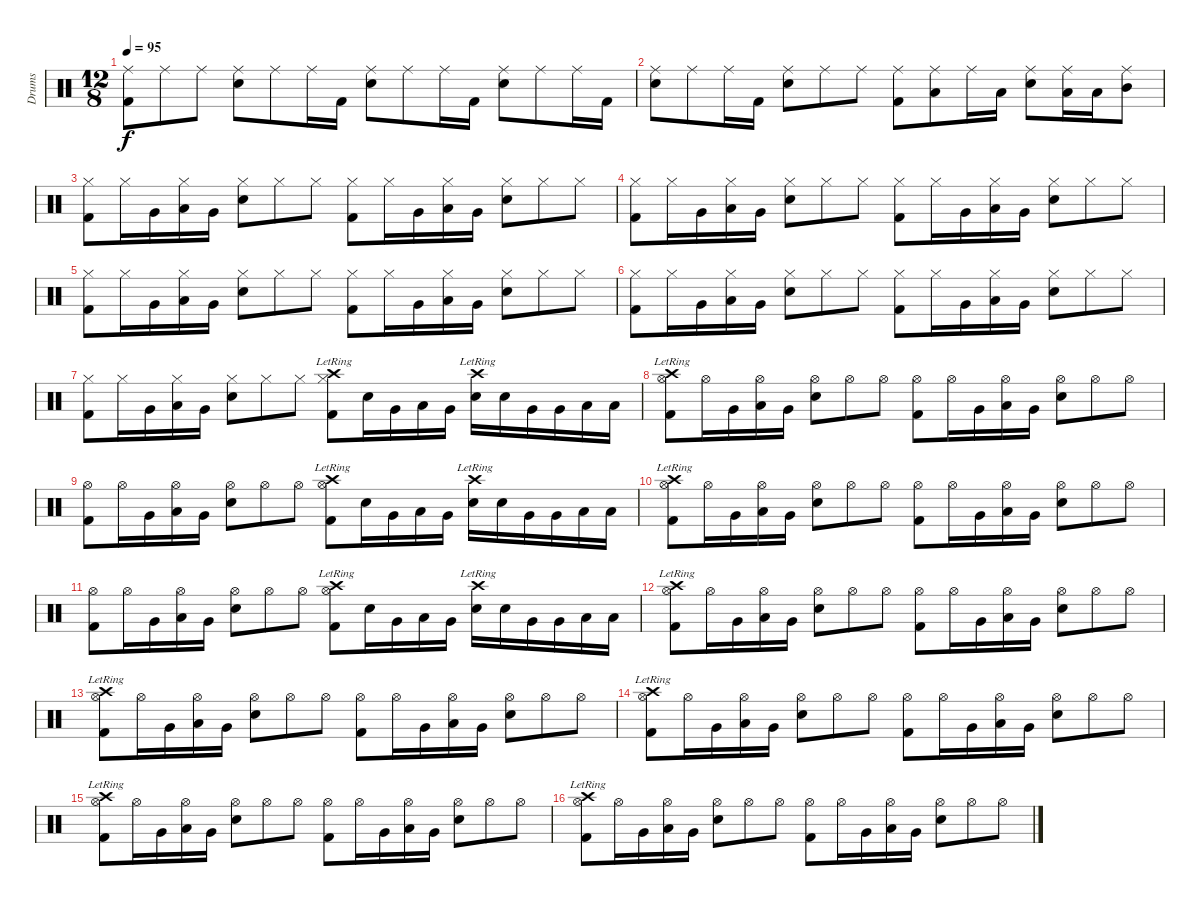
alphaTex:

\track ("Drums" "Drums") {instrument percussion}
\staff {score}
\articulation defaults
\ts (12 8)
\tempo 95
\clef neutral
\ks c
("Kick (hit) 2" "Ride (middle)").8{dy f} "Ride (middle)".8 "Ride (middle)".8 ("Snare (hit) 2" "Ride (middle)").8 "Ride (middle)".8 "Ride (middle)".16 "Kick (hit) 2".16 ("Snare (hit) 2" "Ride (middle)").8 "Ride (middle)".8 "Ride (middle)".16 "Kick (hit) 2".16 ("Snare (hit) 2" "Ride (middle)").8 "Ride (middle)".8 "Ride (middle)".16 "Kick (hit) 2".16 |
("Snare (hit) 2" "Ride (middle)").8 "Ride (middle)".8 "Ride (middle)".16 "Kick (hit) 2".16 ("Snare (hit) 2" "Ride (middle)").8 "Ride (middle)".8 "Ride (middle)".8 ("Kick (hit) 2" "Ride (middle)").8 ("Ride (middle)" "Low Tom (hit)").8 "Ride (middle)".16 "Low Tom (hit)".16 ("Snare (hit) 2" "Ride (middle)").8 ("Ride (middle)" "Low Tom (hit)").16 "Low Tom (hit)".16 ("Ride (middle)" "Mid Tom (hit)").8 |
("Kick (hit) 2" "Hi-Hat (closed)").8 "Hi-Hat (closed)".16 "Very Low Tom (hit)".16 ("Hi-Hat (closed)" "Low Tom (hit)").16 "Very Low Tom (hit)".16 ("Snare (hit) 2" "Hi-Hat (closed)").8 "Hi-Hat (closed)".8 "Hi-Hat (closed)".8 ("Kick (hit) 2" "Hi-Hat (closed)").8 "Hi-Hat (closed)".16 "Very Low Tom (hit)".16 ("Hi-Hat (closed)" "Low Tom (hit)").16 "Very Low Tom (hit)".16 ("Snare (hit) 2" "Hi-Hat (closed)").8 "Hi-Hat (closed)".8 "Hi-Hat (closed)".8 |
("Kick (hit) 2" "Hi-Hat (closed)").8 "Hi-Hat (closed)".16 "Very Low Tom (hit)".16 ("Hi-Hat (closed)" "Low Tom (hit)").16 "Very Low Tom (hit)".16 ("Snare (hit) 2" "Hi-Hat (closed)").8 "Hi-Hat (closed)".8 "Hi-Hat (closed)".8 ("Kick (hit) 2" "Hi-Hat (closed)").8 "Hi-Hat (closed)".16 "Very Low Tom (hit)".16 ("Hi-Hat (closed)" "Low Tom (hit)").16 "Very Low Tom (hit)".16 ("Snare (hit) 2" "Hi-Hat (closed)").8 "Hi-Hat (closed)".8 "Hi-Hat (closed)".8 |
("Kick (hit) 2" "Hi-Hat (closed)").8 "Hi-Hat (closed)".16 "Very Low Tom (hit)".16 ("Hi-Hat (closed)" "Low Tom (hit)").16 "Very Low Tom (hit)".16 ("Snare (hit) 2" "Hi-Hat (closed)").8 "Hi-Hat (closed)".8 "Hi-Hat (closed)".8 ("Kick (hit) 2" "Hi-Hat (closed)").8 "Hi-Hat (closed)".16 "Very Low Tom (hit)".16 ("Hi-Hat (closed)" "Low Tom (hit)").16 "Very Low Tom (hit)".16 ("Snare (hit) 2" "Hi-Hat (closed)").8 "Hi-Hat (closed)".8 "Hi-Hat (closed)".8 |
("Kick (hit) 2" "Hi-Hat (closed)").8 "Hi-Hat (closed)".16 "Very Low Tom (hit)".16 ("Hi-Hat (closed)" "Low Tom (hit)").16 "Very Low Tom (hit)".16 ("Snare (hit) 2" "Hi-Hat (closed)").8 "Hi-Hat (closed)".8 "Hi-Hat (closed)".8 ("Kick (hit) 2" "Hi-Hat (closed)").8 "Hi-Hat (closed)".16 "Very Low Tom (hit)".16 ("Hi-Hat (closed)" "Low Tom (hit)").16 "Very Low Tom (hit)".16 ("Snare (hit) 2" "Hi-Hat (closed)").8 "Hi-Hat (closed)".8 "Hi-Hat (closed)".8 |
("Kick (hit) 2" "Hi-Hat (closed)").8 "Hi-Hat (closed)".16 "Very Low Tom (hit)".16 ("Hi-Hat (closed)" "Low Tom (hit)").16 "Very Low Tom (hit)".16 ("Snare (hit) 2" "Hi-Hat (closed)").8 "Hi-Hat (closed)".8 "Hi-Hat (closed)".8 ("Kick (hit) 2" "Hi-Hat (closed)" "Crash high (hit)"{lr}).8 "Snare (hit) 2".16 "Very Low Tom (hit)".16 "Low Tom (hit)".16 "Very Low Tom (hit)".16 ("Snare (hit) 2" "Crash high (hit)"{lr}).16 "Snare (hit) 2".16 "Very Low Tom (hit)".16 "Very Low Tom (hit)".16 "Low Tom (hit)".16 "Low Tom (hit)".16 |
("Kick (hit) 2" "Hi-Hat (open)" "Crash high (hit)"{lr}).8 "Hi-Hat (open)".16 "Very Low Tom (hit)".16 ("Hi-Hat (open)" "Low Tom (hit)").16 "Very Low Tom (hit)".16 ("Snare (hit) 2" "Hi-Hat (open)").8 "Hi-Hat (open)".8 "Hi-Hat (open)".8 ("Kick (hit) 2" "Hi-Hat (open)").8 "Hi-Hat (open)".16 "Very Low Tom (hit)".16 ("Hi-Hat (open)" "Low Tom (hit)").16 "Very Low Tom (hit)".16 ("Snare (hit) 2" "Hi-Hat (open)").8 "Hi-Hat (open)".8 "Hi-Hat (open)".8 |
("Kick (hit) 2" "Hi-Hat (open)").8 "Hi-Hat (open)".16 "Very Low Tom (hit)".16 ("Hi-Hat (open)" "Low Tom (hit)").16 "Very Low Tom (hit)".16 ("Snare (hit) 2" "Hi-Hat (open)").8 "Hi-Hat (open)".8 "Hi-Hat (open)".8 ("Kick (hit) 2" "Hi-Hat (open)" "Crash high (hit)"{lr}).8 "Snare (hit) 2".16 "Very Low Tom (hit)".16 "Low Tom (hit)".16 "Very Low Tom (hit)".16 ("Snare (hit) 2" "Crash high (hit)"{lr}).16 "Snare (hit) 2".16 "Very Low Tom (hit)".16 "Very Low Tom (hit)".16 "Low Tom (hit)".16 "Low Tom (hit)".16 |
("Kick (hit) 2" "Hi-Hat (open)" "Crash high (hit)"{lr}).8 "Hi-Hat (open)".16 "Very Low Tom (hit)".16 ("Hi-Hat (open)" "Low Tom (hit)").16 "Very Low Tom (hit)".16 ("Snare (hit) 2" "Hi-Hat (open)").8 "Hi-Hat (open)".8 "Hi-Hat (open)".8 ("Kick (hit) 2" "Hi-Hat (open)").8 "Hi-Hat (open)".16 "Very Low Tom (hit)".16 ("Hi-Hat (open)" "Low Tom (hit)").16 "Very Low Tom (hit)".16 ("Snare (hit) 2" "Hi-Hat (open)").8 "Hi-Hat (open)".8 "Hi-Hat (open)".8 |
("Kick (hit) 2" "Hi-Hat (open)").8 "Hi-Hat (open)".16 "Very Low Tom (hit)".16 ("Hi-Hat (open)" "Low Tom (hit)").16 "Very Low Tom (hit)".16 ("Snare (hit) 2" "Hi-Hat (open)").8 "Hi-Hat (open)".8 "Hi-Hat (open)".8 ("Kick (hit) 2" "Hi-Hat (open)" "Crash high (hit)"{lr}).8 "Snare (hit) 2".16 "Very Low Tom (hit)".16 "Low Tom (hit)".16 "Very Low Tom (hit)".16 ("Snare (hit) 2" "Crash high (hit)"{lr}).16 "Snare (hit) 2".16 "Very Low Tom (hit)".16 "Very Low Tom (hit)".16 "Low Tom (hit)".16 "Low Tom (hit)".16 |
("Kick (hit) 2" "Hi-Hat (open)" "Crash high (hit)"{lr}).8 "Hi-Hat (open)".16 "Very Low Tom (hit)".16 ("Hi-Hat (open)" "Low Tom (hit)").16 "Very Low Tom (hit)".16 ("Snare (hit) 2" "Hi-Hat (open)").8 "Hi-Hat (open)".8 "Hi-Hat (open)".8 ("Kick (hit) 2" "Hi-Hat (open)").8 "Hi-Hat (open)".16 "Very Low Tom (hit)".16 ("Hi-Hat (open)" "Low Tom (hit)").16 "Very Low Tom (hit)".16 ("Snare (hit) 2" "Hi-Hat (open)").8 "Hi-Hat (open)".8 "Hi-Hat (open)".8 |
("Kick (hit) 2" "Hi-Hat (open)" "Crash high (hit)"{lr}).8 "Hi-Hat (open)".16 "Very Low Tom (hit)".16 ("Hi-Hat (open)" "Low Tom (hit)").16 "Very Low Tom (hit)".16 ("Snare (hit) 2" "Hi-Hat (open)").8 "Hi-Hat (open)".8 "Hi-Hat (open)".8 ("Kick (hit) 2" "Hi-Hat (open)").8 "Hi-Hat (open)".16 "Very Low Tom (hit)".16 ("Hi-Hat (open)" "Low Tom (hit)").16 "Very Low Tom (hit)".16 ("Snare (hit) 2" "Hi-Hat (open)").8 "Hi-Hat (open)".8 "Hi-Hat (open)".8 |
("Kick (hit) 2" "Hi-Hat (open)" "Crash high (hit)"{lr}).8 "Hi-Hat (open)".16 "Very Low Tom (hit)".16 ("Hi-Hat (open)" "Low Tom (hit)").16 "Very Low Tom (hit)".16 ("Snare (hit) 2" "Hi-Hat (open)").8 "Hi-Hat (open)".8 "Hi-Hat (open)".8 ("Kick (hit) 2" "Hi-Hat (open)").8 "Hi-Hat (open)".16 "Very Low Tom (hit)".16 ("Hi-Hat (open)" "Low Tom (hit)").16 "Very Low Tom (hit)".16 ("Snare (hit) 2" "Hi-Hat (open)").8 "Hi-Hat (open)".8 "Hi-Hat (open)".8 |
("Kick (hit) 2" "Hi-Hat (open)" "Crash high (hit)"{lr}).8 "Hi-Hat (open)".16 "Very Low Tom (hit)".16 ("Hi-Hat (open)" "Low Tom (hit)").16 "Very Low Tom (hit)".16 ("Snare (hit) 2" "Hi-Hat (open)").8 "Hi-Hat (open)".8 "Hi-Hat (open)".8 ("Kick (hit) 2" "Hi-Hat (open)").8 "Hi-Hat (open)".16 "Very Low Tom (hit)".16 ("Hi-Hat (open)" "Low Tom (hit)").16 "Very Low Tom (hit)".16 ("Snare (hit) 2" "Hi-Hat (open)").8 "Hi-Hat (open)".8 "Hi-Hat (open)".8 |
("Kick (hit) 2" "Hi-Hat (open)" "Crash high (hit)"{lr}).8 "Hi-Hat (open)".16 "Very Low Tom (hit)".16 ("Hi-Hat (open)" "Low Tom (hit)").16 "Very Low Tom (hit)".16 ("Snare (hit) 2" "Hi-Hat (open)").8 "Hi-Hat (open)".8 "Hi-Hat (open)".8 ("Kick (hit) 2" "Hi-Hat (open)").8 "Hi-Hat (open)".16 "Very Low Tom (hit)".16 ("Hi-Hat (open)" "Low Tom (hit)").16 "Very Low Tom (hit)".16 ("Snare (hit) 2" "Hi-Hat (open)").8 "Hi-Hat (open)".8 "Hi-Hat (open)".8
